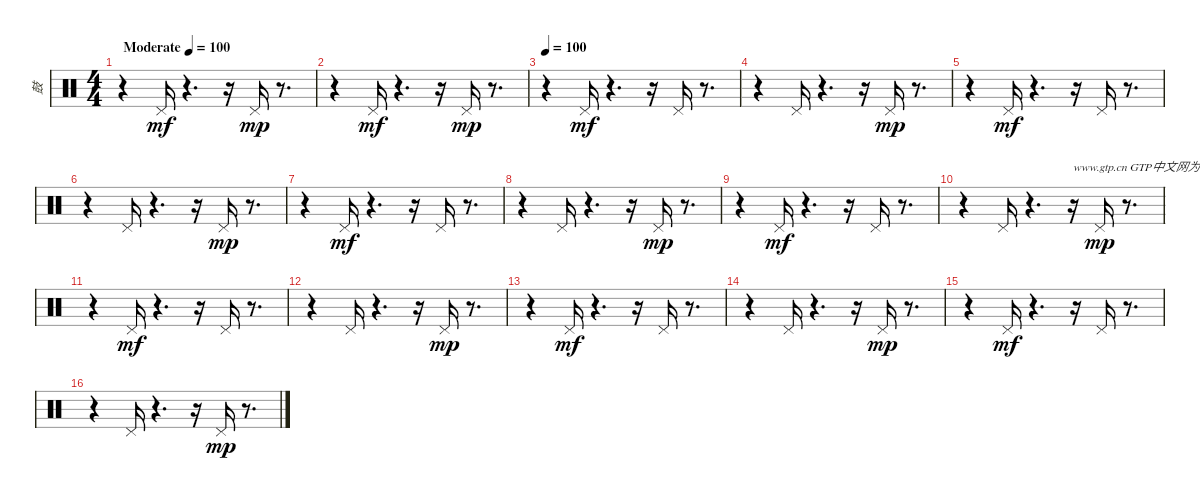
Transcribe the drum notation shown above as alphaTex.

\track ("鼓" "鼓") {instrument percussion}
\staff {score}
\articulation defaults
\ts (4 4)
\tempo (100 "Moderate")
\clef neutral
\ks c
r.4{dy mf} "Pedal Hi-Hat (hit)".16 r.4{d} r.16 "Pedal Hi-Hat (hit)".16{dy mp} r.8{d} |
r.4 "Pedal Hi-Hat (hit)".16{dy mf} r.4{d} r.16 "Pedal Hi-Hat (hit)".16{dy mp} r.8{d} |
\tempo 100
r.4 "Pedal Hi-Hat (hit)".16{dy mf} r.4{d} r.16 "Pedal Hi-Hat (hit)".16 r.8{d} |
r.4 "Pedal Hi-Hat (hit)".16 r.4{d} r.16 "Pedal Hi-Hat (hit)".16{dy mp} r.8{d} |
r.4 "Pedal Hi-Hat (hit)".16{dy mf} r.4{d} r.16 "Pedal Hi-Hat (hit)".16 r.8{d} |
r.4 "Pedal Hi-Hat (hit)".16 r.4{d} r.16 "Pedal Hi-Hat (hit)".16{dy mp} r.8{d} |
r.4 "Pedal Hi-Hat (hit)".16{dy mf} r.4{d} r.16 "Pedal Hi-Hat (hit)".16 r.8{d} |
r.4 "Pedal Hi-Hat (hit)".16 r.4{d} r.16 "Pedal Hi-Hat (hit)".16{dy mp} r.8{d} |
r.4 "Pedal Hi-Hat (hit)".16{dy mf} r.4{d} r.16 "Pedal Hi-Hat (hit)".16 r.8{d} |
r.4 "Pedal Hi-Hat (hit)".16 r.4{d} r.16{txt "www.gtp.cn GTP中文网为您提供优秀的谱子"} "Pedal Hi-Hat (hit)".16{dy mp} r.8{d} |
r.4 "Pedal Hi-Hat (hit)".16{dy mf} r.4{d} r.16 "Pedal Hi-Hat (hit)".16 r.8{d} |
r.4 "Pedal Hi-Hat (hit)".16 r.4{d} r.16 "Pedal Hi-Hat (hit)".16{dy mp} r.8{d} |
r.4 "Pedal Hi-Hat (hit)".16{dy mf} r.4{d} r.16 "Pedal Hi-Hat (hit)".16 r.8{d} |
r.4 "Pedal Hi-Hat (hit)".16 r.4{d} r.16 "Pedal Hi-Hat (hit)".16{dy mp} r.8{d} |
r.4 "Pedal Hi-Hat (hit)".16{dy mf} r.4{d} r.16 "Pedal Hi-Hat (hit)".16 r.8{d} |
r.4 "Pedal Hi-Hat (hit)".16 r.4{d} r.16 "Pedal Hi-Hat (hit)".16{dy mp} r.8{d}
